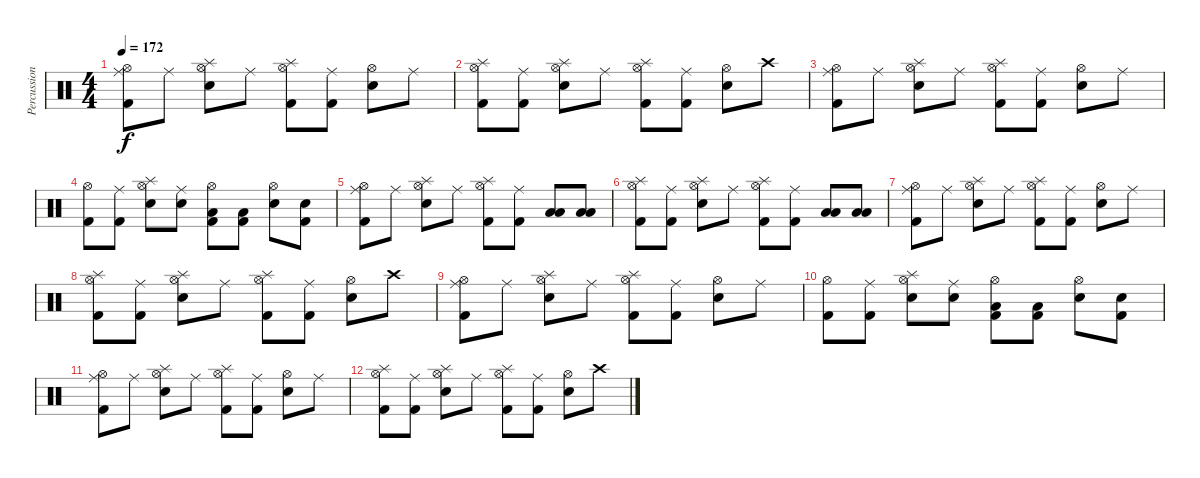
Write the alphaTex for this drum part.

\track ("Percussion" "Percussion") {instrument percussion}
\staff {score}
\articulation defaults
\ts (4 4)
\tempo 172
\clef neutral
\ks c
("Hi-Hat (open)" "Ride (middle)" "Kick (hit) 2").8{dy f} "Ride (middle)".8 ("Hi-Hat (open)" "Splash (hit)" "Electric Snare (hit)").8 "Ride (middle)".8 ("Hi-Hat (open)" "Splash (hit)" "Kick (hit) 2").8 ("Ride (middle)" "Kick (hit) 2").8 ("Hi-Hat (open)" "Electric Snare (hit)").8 "Ride (middle)".8 |
("Hi-Hat (open)" "Splash (hit)" "Kick (hit) 2").8 ("Ride (middle)" "Kick (hit) 2").8 ("Hi-Hat (open)" "Splash (hit)" "Electric Snare (hit)").8 "Ride (middle)".8 ("Hi-Hat (open)" "Splash (hit)" "Kick (hit) 2").8 ("Ride (middle)" "Kick (hit) 2").8 ("Hi-Hat (open)" "Electric Snare (hit)").8 "Crash high (hit)".8 |
("Hi-Hat (open)" "Ride (middle)" "Kick (hit) 2").8 "Ride (middle)".8 ("Hi-Hat (open)" "Splash (hit)" "Electric Snare (hit)").8 "Ride (middle)".8 ("Hi-Hat (open)" "Splash (hit)" "Kick (hit) 2").8 ("Ride (middle)" "Kick (hit) 2").8 ("Hi-Hat (open)" "Electric Snare (hit)").8 "Ride (middle)".8 |
("Hi-Hat (open)" "Kick (hit) 2").8 ("Ride (middle)" "Kick (hit) 2").8 ("Hi-Hat (open)" "Splash (hit)" "Electric Snare (hit)").8 ("Ride (middle)" "Electric Snare (hit)").8 ("Hi-Hat (open)" "Kick (hit) 2" "Low Floor Tom (hit)").8 ("Kick (hit) 2" "Low Floor Tom (hit)").8 ("Hi-Hat (open)" "Snare (hit) 2").8 ("Electric Snare (hit)" "Kick (hit) 2").8 |
("Hi-Hat (open)" "Ride (middle)" "Kick (hit) 2").8 "Ride (middle)".8 ("Hi-Hat (open)" "Splash (hit)" "Electric Snare (hit)").8 "Ride (middle)".8 ("Hi-Hat (open)" "Splash (hit)" "Kick (hit) 2").8 ("Ride (middle)" "Kick (hit) 2").8 ("Low Floor Tom (hit)" "Low Tom (hit)").8 ("Low Floor Tom (hit)" "Low Tom (hit)").8 |
("Hi-Hat (open)" "Splash (hit)" "Kick (hit) 2").8 ("Ride (middle)" "Kick (hit) 2").8 ("Hi-Hat (open)" "Splash (hit)" "Electric Snare (hit)").8 "Ride (middle)".8 ("Hi-Hat (open)" "Splash (hit)" "Kick (hit) 2").8 ("Ride (middle)" "Kick (hit) 2").8 ("Low Floor Tom (hit)" "Low Tom (hit)").8 ("Low Floor Tom (hit)" "Low Tom (hit)").8 |
("Hi-Hat (open)" "Ride (middle)" "Kick (hit) 2").8 "Ride (middle)".8 ("Hi-Hat (open)" "Splash (hit)" "Electric Snare (hit)").8 "Ride (middle)".8 ("Hi-Hat (open)" "Splash (hit)" "Kick (hit) 2").8 ("Ride (middle)" "Kick (hit) 2").8 ("Hi-Hat (open)" "Electric Snare (hit)").8 "Ride (middle)".8 |
("Hi-Hat (open)" "Splash (hit)" "Kick (hit) 2").8 ("Ride (middle)" "Kick (hit) 2").8 ("Hi-Hat (open)" "Splash (hit)" "Electric Snare (hit)").8 "Ride (middle)".8 ("Hi-Hat (open)" "Splash (hit)" "Kick (hit) 2").8 ("Ride (middle)" "Kick (hit) 2").8 ("Hi-Hat (open)" "Electric Snare (hit)").8 "Crash high (hit)".8 |
("Hi-Hat (open)" "Ride (middle)" "Kick (hit) 2").8 "Ride (middle)".8 ("Hi-Hat (open)" "Splash (hit)" "Electric Snare (hit)").8 "Ride (middle)".8 ("Hi-Hat (open)" "Splash (hit)" "Kick (hit) 2").8 ("Ride (middle)" "Kick (hit) 2").8 ("Hi-Hat (open)" "Electric Snare (hit)").8 "Ride (middle)".8 |
("Hi-Hat (open)" "Kick (hit) 2").8 ("Ride (middle)" "Kick (hit) 2").8 ("Hi-Hat (open)" "Splash (hit)" "Electric Snare (hit)").8 ("Ride (middle)" "Electric Snare (hit)").8 ("Hi-Hat (open)" "Kick (hit) 2" "Low Floor Tom (hit)").8 ("Kick (hit) 2" "Low Floor Tom (hit)").8 ("Hi-Hat (open)" "Snare (hit) 2").8 ("Electric Snare (hit)" "Kick (hit) 2").8 |
("Hi-Hat (open)" "Ride (middle)" "Kick (hit) 2").8 "Ride (middle)".8 ("Hi-Hat (open)" "Splash (hit)" "Electric Snare (hit)").8 "Ride (middle)".8 ("Hi-Hat (open)" "Splash (hit)" "Kick (hit) 2").8 ("Ride (middle)" "Kick (hit) 2").8 ("Hi-Hat (open)" "Electric Snare (hit)").8 "Ride (middle)".8 |
("Hi-Hat (open)" "Splash (hit)" "Kick (hit) 2").8 ("Ride (middle)" "Kick (hit) 2").8 ("Hi-Hat (open)" "Splash (hit)" "Electric Snare (hit)").8 "Ride (middle)".8 ("Hi-Hat (open)" "Splash (hit)" "Kick (hit) 2").8 ("Ride (middle)" "Kick (hit) 2").8 ("Hi-Hat (open)" "Electric Snare (hit)").8 "Crash high (hit)".8
